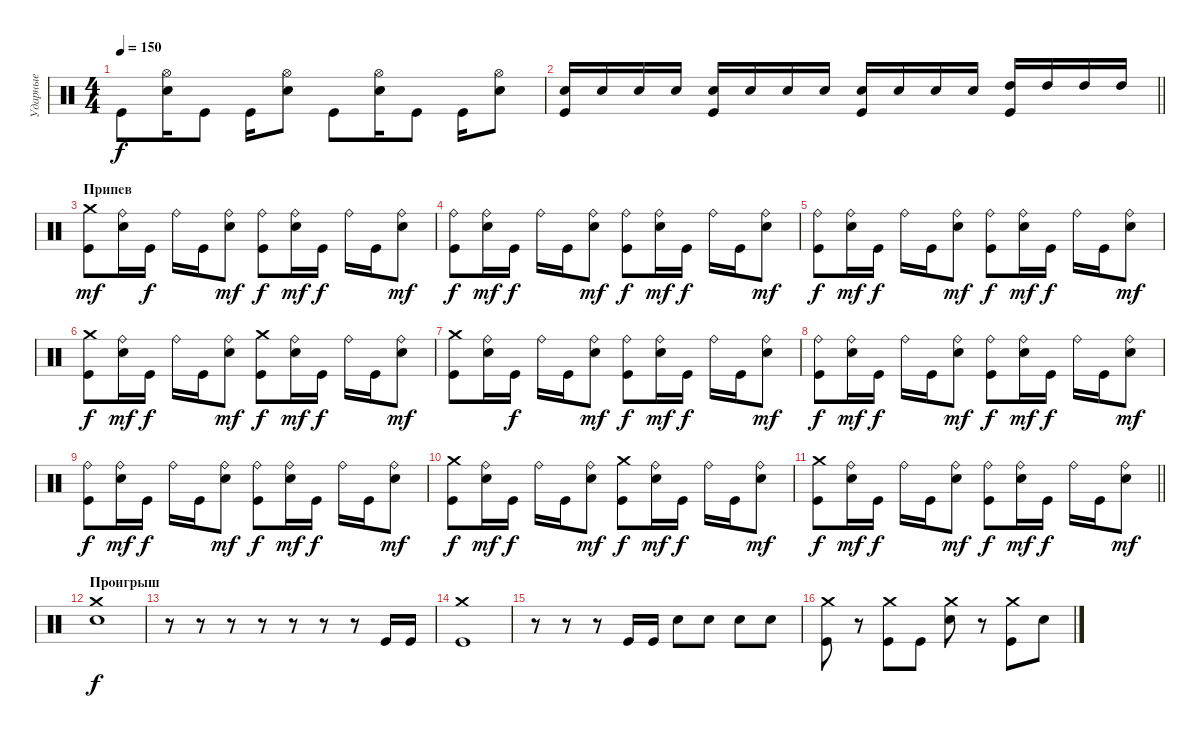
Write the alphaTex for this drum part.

\track ("Ударные" "Ударные") {instrument percussion}
\staff {score}
\articulation defaults
\ts (4 4)
\tempo 150
\clef neutral
\ks c "Kick (hit)".8{dy f}
("Hi-Hat (open)" "Electric Snare (hit)").16 "Kick (hit)".8 "Kick (hit)".16 ("Hi-Hat (open)" "Electric Snare (hit)").8 "Kick (hit)".8 ("Hi-Hat (open)" "Electric Snare (hit)").16 "Kick (hit)".8 "Kick (hit)".16 ("Hi-Hat (open)" "Electric Snare (hit)").8 |
\barLineRight lightlight
("Electric Snare (hit)" "Kick (hit)").16 "Electric Snare (hit)".16 "Electric Snare (hit)".16 "Electric Snare (hit)".16 ("Electric Snare (hit)" "Kick (hit)").16 "Electric Snare (hit)".16 "Electric Snare (hit)".16 "Electric Snare (hit)".16 ("Electric Snare (hit)" "Kick (hit)").16 "Electric Snare (hit)".16 "Electric Snare (hit)".16 "Electric Snare (hit)".16 ("High Tom (hit)" "Kick (hit)").16 "High Tom (hit)".16 "High Tom (hit)".16 "High Tom (hit)".16 |
\section ("" "Припев")
("Crash medium (hit)" "Kick (hit)").8{dy mf} ("Ride (bell)" "Electric Snare (hit)").16 "Kick (hit)".16{dy f} "Ride (bell)".16 "Kick (hit)".16 ("Ride (bell)" "Electric Snare (hit)").8{dy mf} ("Ride (bell)" "Kick (hit)").8{dy f} ("Ride (bell)" "Electric Snare (hit)").16{dy mf} "Kick (hit)".16{dy f} "Ride (bell)".16 "Kick (hit)".16 ("Ride (bell)" "Electric Snare (hit)").8{dy mf} |
("Ride (bell)" "Kick (hit)").8{dy f} ("Ride (bell)" "Electric Snare (hit)").16{dy mf} "Kick (hit)".16{dy f} "Ride (bell)".16 "Kick (hit)".16 ("Ride (bell)" "Electric Snare (hit)").8{dy mf} ("Ride (bell)" "Kick (hit)").8{dy f} ("Ride (bell)" "Electric Snare (hit)").16{dy mf} "Kick (hit)".16{dy f} "Ride (bell)".16 "Kick (hit)".16 ("Ride (bell)" "Electric Snare (hit)").8{dy mf} |
("Ride (bell)" "Kick (hit)").8{dy f} ("Ride (bell)" "Electric Snare (hit)").16{dy mf} "Kick (hit)".16{dy f} "Ride (bell)".16 "Kick (hit)".16 ("Ride (bell)" "Electric Snare (hit)").8{dy mf} ("Ride (bell)" "Kick (hit)").8{dy f} ("Ride (bell)" "Electric Snare (hit)").16{dy mf} "Kick (hit)".16{dy f} "Ride (bell)".16 "Kick (hit)".16 ("Ride (bell)" "Electric Snare (hit)").8{dy mf} |
("Crash medium (hit)" "Kick (hit)").8{dy f} ("Ride (bell)" "Electric Snare (hit)").16{dy mf} "Kick (hit)".16{dy f} "Ride (bell)".16 "Kick (hit)".16 ("Ride (bell)" "Electric Snare (hit)").8{dy mf} ("Crash medium (hit)" "Kick (hit)").8{dy f} ("Ride (bell)" "Electric Snare (hit)").16{dy mf} "Kick (hit)".16{dy f} "Ride (bell)".16 "Kick (hit)".16 ("Ride (bell)" "Electric Snare (hit)").8{dy mf} |
("Crash medium (hit)" "Kick (hit)").8 ("Ride (bell)" "Electric Snare (hit)").16 "Kick (hit)".16{dy f} "Ride (bell)".16 "Kick (hit)".16 ("Ride (bell)" "Electric Snare (hit)").8{dy mf} ("Ride (bell)" "Kick (hit)").8{dy f} ("Ride (bell)" "Electric Snare (hit)").16{dy mf} "Kick (hit)".16{dy f} "Ride (bell)".16 "Kick (hit)".16 ("Ride (bell)" "Electric Snare (hit)").8{dy mf} |
("Ride (bell)" "Kick (hit)").8{dy f} ("Ride (bell)" "Electric Snare (hit)").16{dy mf} "Kick (hit)".16{dy f} "Ride (bell)".16 "Kick (hit)".16 ("Ride (bell)" "Electric Snare (hit)").8{dy mf} ("Ride (bell)" "Kick (hit)").8{dy f} ("Ride (bell)" "Electric Snare (hit)").16{dy mf} "Kick (hit)".16{dy f} "Ride (bell)".16 "Kick (hit)".16 ("Ride (bell)" "Electric Snare (hit)").8{dy mf} |
("Ride (bell)" "Kick (hit)").8{dy f} ("Ride (bell)" "Electric Snare (hit)").16{dy mf} "Kick (hit)".16{dy f} "Ride (bell)".16 "Kick (hit)".16 ("Ride (bell)" "Electric Snare (hit)").8{dy mf} ("Ride (bell)" "Kick (hit)").8{dy f} ("Ride (bell)" "Electric Snare (hit)").16{dy mf} "Kick (hit)".16{dy f} "Ride (bell)".16 "Kick (hit)".16 ("Ride (bell)" "Electric Snare (hit)").8{dy mf} |
("Crash medium (hit)" "Kick (hit)").8{dy f} ("Ride (bell)" "Electric Snare (hit)").16{dy mf} "Kick (hit)".16{dy f} "Ride (bell)".16 "Kick (hit)".16 ("Ride (bell)" "Electric Snare (hit)").8{dy mf} ("Crash medium (hit)" "Kick (hit)").8{dy f} ("Ride (bell)" "Electric Snare (hit)").16{dy mf} "Kick (hit)".16{dy f} "Ride (bell)".16 "Kick (hit)".16 ("Ride (bell)" "Electric Snare (hit)").8{dy mf} |
\barLineRight lightlight
("Crash medium (hit)" "Kick (hit)").8{dy f} ("Ride (bell)" "Electric Snare (hit)").16{dy mf} "Kick (hit)".16{dy f} "Ride (bell)".16 "Kick (hit)".16 ("Ride (bell)" "Electric Snare (hit)").8{dy mf} ("Ride (bell)" "Kick (hit)").8{dy f} ("Ride (bell)" "Electric Snare (hit)").16{dy mf} "Kick (hit)".16{dy f} "Ride (bell)".16 "Kick (hit)".16 ("Ride (bell)" "Electric Snare (hit)").8{dy mf} |
\section ("" "Проигрыш")
("Crash medium (hit)" "Electric Snare (hit)").1{dy f} |
r.8 r.8 r.8 r.8 r.8 r.8 r.8 "Kick (hit)".16 "Kick (hit)".16 |
("Crash medium (hit)" "Kick (hit)").1 |
r.8 r.8 r.8 "Kick (hit)".16 "Kick (hit)".16 "Electric Snare (hit)".8 "Electric Snare (hit)".8 "Electric Snare (hit)".8 "Electric Snare (hit)".8 |
("Crash medium (hit)" "Kick (hit)").8 r.8 ("Crash medium (hit)" "Kick (hit)").8 "Kick (hit)".8 ("Crash medium (hit)" "Electric Snare (hit)").8 r.8 ("Crash medium (hit)" "Kick (hit)").8 "Electric Snare (hit)".8
